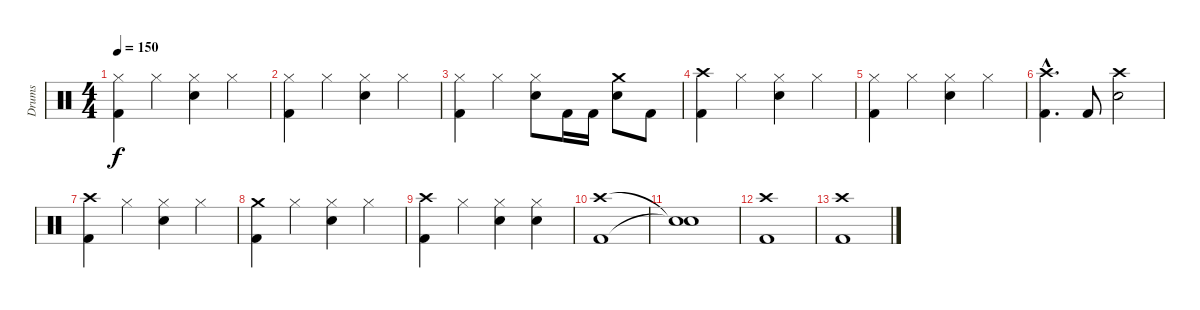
\track ("Drums" "Drums") {instrument percussion}
\staff {score}
\articulation defaults
\ts (4 4)
\tempo 150
\clef neutral
\ks c
("Hi-Hat (closed)" "Kick (hit) 2").4{dy f} "Hi-Hat (closed)".4 ("Hi-Hat (closed)" "Snare (hit) 2").4 "Hi-Hat (closed)".4 |
("Hi-Hat (closed)" "Kick (hit) 2").4 "Hi-Hat (closed)".4 ("Hi-Hat (closed)" "Snare (hit) 2").4 "Hi-Hat (closed)".4 |
("Hi-Hat (closed)" "Kick (hit) 2").4 "Hi-Hat (closed)".4 ("Hi-Hat (closed)" "Snare (hit) 2").8 "Kick (hit) 2".16 "Kick (hit) 2".16 ("Crash medium (hit)" "Snare (hit) 2").8 "Kick (hit) 2".8 |
("Crash high (hit)" "Kick (hit) 2").4 "Hi-Hat (closed)".4 ("Hi-Hat (closed)" "Snare (hit) 2").4 "Hi-Hat (closed)".4 |
("Hi-Hat (closed)" "Kick (hit) 2").4 "Hi-Hat (closed)".4 ("Hi-Hat (closed)" "Snare (hit) 2").4 "Hi-Hat (closed)".4 |
("Crash high (hit)"{hac} "Kick (hit) 2"{hac}).4{d} "Kick (hit) 2".8 ("Crash high (hit)" "Snare (hit) 2").2 |
("Crash high (hit)" "Kick (hit) 2").4 "Hi-Hat (closed)".4 ("Hi-Hat (closed)" "Snare (hit) 2").4 "Hi-Hat (closed)".4 |
("Crash medium (hit)" "Kick (hit) 2").4 "Hi-Hat (closed)".4 ("Hi-Hat (closed)" "Snare (hit) 2").4 "Hi-Hat (closed)".4 |
("Crash high (hit)" "Kick (hit) 2").4 "Hi-Hat (closed)".4 ("Hi-Hat (closed)" "Snare (hit) 2").4 ("Hi-Hat (closed)" "Snare (hit) 2").4 |
("Crash high (hit)" "Kick (hit) 2").1 |
("Snare (hit)"{t} "Snare (hit)"{t}).1 |
("Crash high (hit)" "Kick (hit) 2").1 |
("Crash high (hit)" "Kick (hit) 2").1
